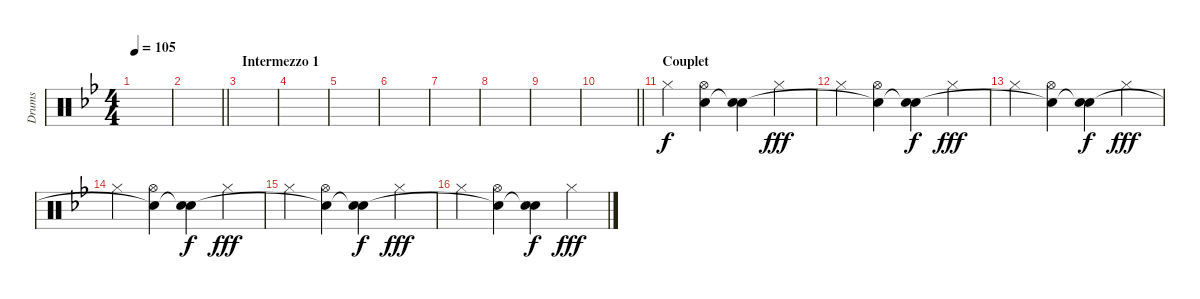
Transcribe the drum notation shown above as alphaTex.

\track ("Drums" "Drums") {instrument percussion}
\staff {score}
\articulation defaults
\ts (4 4)
\tempo 105
\clef neutral
\ks bb
|
\barLineRight lightlight
|
\section ("" "Intermezzo 1")
|
|
|
|
|
|
|
\barLineRight lightlight
|
\section ("" "Couplet")
"Hi-Hat (closed)".4 ("Hi-Hat (open)" "Snare (hit)").4 ("Snare (hit) 2" "Snare (hit)"{t}).4{dy f} "Hi-Hat (closed)".4{dy fff} |
"Hi-Hat (closed)".4 ("Hi-Hat (open)" "Snare (hit)"{t}).4 ("Snare (hit) 2" "Snare (hit)"{t}).4{dy f} "Hi-Hat (closed)".4{dy fff} |
"Hi-Hat (closed)".4 ("Hi-Hat (open)" "Snare (hit)"{t}).4 ("Snare (hit) 2" "Snare (hit)"{t}).4{dy f} "Hi-Hat (closed)".4{dy fff} |
"Hi-Hat (closed)".4 ("Hi-Hat (open)" "Snare (hit)"{t}).4 ("Snare (hit) 2" "Snare (hit)"{t}).4{dy f} "Hi-Hat (closed)".4{dy fff} |
"Hi-Hat (closed)".4 ("Hi-Hat (open)" "Snare (hit)"{t}).4 ("Snare (hit) 2" "Snare (hit)"{t}).4{dy f} "Hi-Hat (closed)".4{dy fff} |
"Hi-Hat (closed)".4 ("Hi-Hat (open)" "Snare (hit)"{t}).4 ("Snare (hit) 2" "Snare (hit)"{t}).4{dy f} "Hi-Hat (closed)".4{dy fff}
